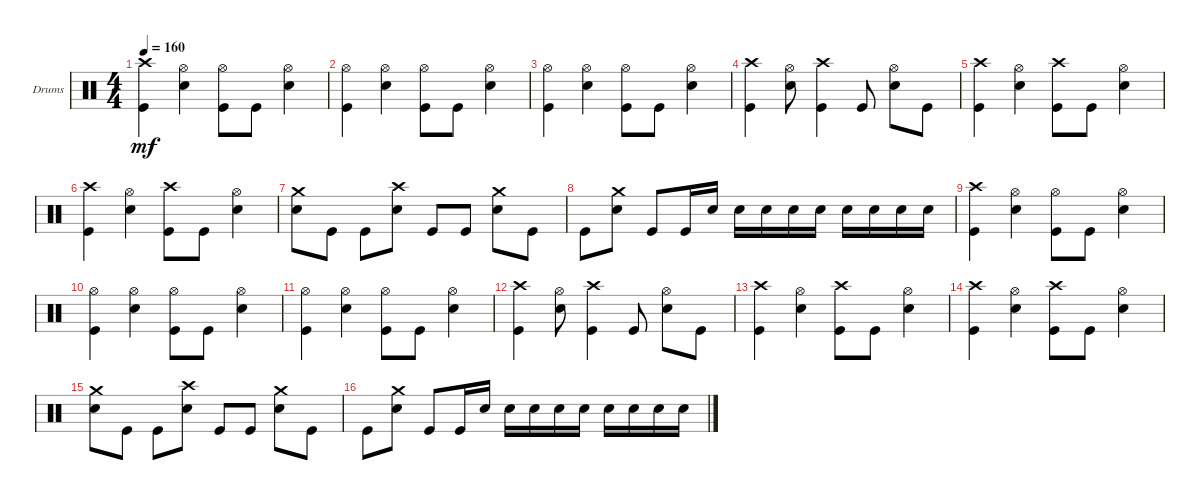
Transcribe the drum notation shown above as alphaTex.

\defaultSystemsLayout 4
\bracketExtendMode groupsimilarinstruments
\firstSystemTrackNameOrientation horizontal
\otherSystemsTrackNameOrientation horizontal
\track ("Drumkit" "Drums") {instrument percussion}
\staff {score}
\articulation defaults
\ts (4 4)
\tempo 160
\clef neutral
\scale
0.333333
\ks c
("Crash high (hit)" "Kick (hit)").4{dy mf} ("Snare (hit) 2" "Hi-Hat (open)").4 ("Kick (hit)" "Hi-Hat (open)").8 "Kick (hit)".8 ("Snare (hit) 2" "Hi-Hat (open)").4 |
\scale
0.333333 ("Kick (hit)" "Hi-Hat (open)").4 ("Snare (hit) 2" "Hi-Hat (open)").4 ("Kick (hit)" "Hi-Hat (open)").8 "Kick (hit)".8 ("Snare (hit) 2" "Hi-Hat (open)").4 |
\scale
0.333333 ("Kick (hit)" "Hi-Hat (open)").4 ("Snare (hit) 2" "Hi-Hat (open)").4 ("Kick (hit)" "Hi-Hat (open)").8 "Kick (hit)".8 ("Snare (hit) 2" "Hi-Hat (open)").4 |
\scale
0.333333 ("Kick (hit)" "Crash high (hit)").4 ("Snare (hit) 2" "Hi-Hat (open)").8 ("Kick (hit)" "Crash high (hit)").4 "Kick (hit)".8 ("Snare (hit) 2" "Hi-Hat (open)").8 "Kick (hit)".8 |
\scale
0.333333 ("Crash high (hit)" "Kick (hit)").4 ("Snare (hit) 2" "Hi-Hat (open)").4 ("Kick (hit)" "Crash high (hit)").8 "Kick (hit)".8 ("Snare (hit) 2" "Hi-Hat (open)").4 |
\scale
0.333333 ("Crash high (hit)" "Kick (hit)").4 ("Snare (hit) 2" "Hi-Hat (open)").4 ("Kick (hit)" "Crash high (hit)").8 "Kick (hit)".8 ("Snare (hit) 2" "Hi-Hat (open)").4 |
\scale
0.333333 ("Snare (hit) 2" "Crash medium (hit)").8 "Kick (hit)".8 "Kick (hit)".8 ("Snare (hit) 2" "Crash high (hit)").8 "Kick (hit)".8 "Kick (hit)".8 ("Snare (hit) 2" "Crash medium (hit)").8 "Kick (hit)".8 |
\scale
0.333333 "Kick (hit)".8 ("Snare (hit) 2" "Crash medium (hit)").8 "Kick (hit)".8 "Kick (hit)".16 "Snare (hit) 2".16 "Snare (hit) 2".16 "Snare (hit) 2".16 "Snare (hit) 2".16 "Snare (hit) 2".16 "Snare (hit) 2".16 "Snare (hit) 2".16 "Snare (hit) 2".16 "Snare (hit) 2".16 |
\scale
0.333333 ("Crash high (hit)" "Kick (hit)").4 ("Snare (hit) 2" "Hi-Hat (open)").4 ("Kick (hit)" "Hi-Hat (open)").8 "Kick (hit)".8 ("Snare (hit) 2" "Hi-Hat (open)").4 |
\scale
0.333333 ("Kick (hit)" "Hi-Hat (open)").4 ("Snare (hit) 2" "Hi-Hat (open)").4 ("Kick (hit)" "Hi-Hat (open)").8 "Kick (hit)".8 ("Snare (hit) 2" "Hi-Hat (open)").4 |
\scale
0.333333 ("Kick (hit)" "Hi-Hat (open)").4 ("Snare (hit) 2" "Hi-Hat (open)").4 ("Kick (hit)" "Hi-Hat (open)").8 "Kick (hit)".8 ("Snare (hit) 2" "Hi-Hat (open)").4 |
\scale
0.333333 ("Kick (hit)" "Crash high (hit)").4 ("Snare (hit) 2" "Hi-Hat (open)").8 ("Kick (hit)" "Crash high (hit)").4 "Kick (hit)".8 ("Snare (hit) 2" "Hi-Hat (open)").8 "Kick (hit)".8 |
\scale
0.333333 ("Crash high (hit)" "Kick (hit)").4 ("Snare (hit) 2" "Hi-Hat (open)").4 ("Kick (hit)" "Crash high (hit)").8 "Kick (hit)".8 ("Snare (hit) 2" "Hi-Hat (open)").4 |
\scale
0.333333 ("Crash high (hit)" "Kick (hit)").4 ("Snare (hit) 2" "Hi-Hat (open)").4 ("Kick (hit)" "Crash high (hit)").8 "Kick (hit)".8 ("Snare (hit) 2" "Hi-Hat (open)").4 |
\scale
0.333333 ("Snare (hit) 2" "Crash medium (hit)").8 "Kick (hit)".8 "Kick (hit)".8 ("Snare (hit) 2" "Crash high (hit)").8 "Kick (hit)".8 "Kick (hit)".8 ("Snare (hit) 2" "Crash medium (hit)").8 "Kick (hit)".8 |
\scale
0.333333 "Kick (hit)".8 ("Snare (hit) 2" "Crash medium (hit)").8 "Kick (hit)".8 "Kick (hit)".16 "Snare (hit) 2".16 "Snare (hit) 2".16 "Snare (hit) 2".16 "Snare (hit) 2".16 "Snare (hit) 2".16 "Snare (hit) 2".16 "Snare (hit) 2".16 "Snare (hit) 2".16 "Snare (hit) 2".16
